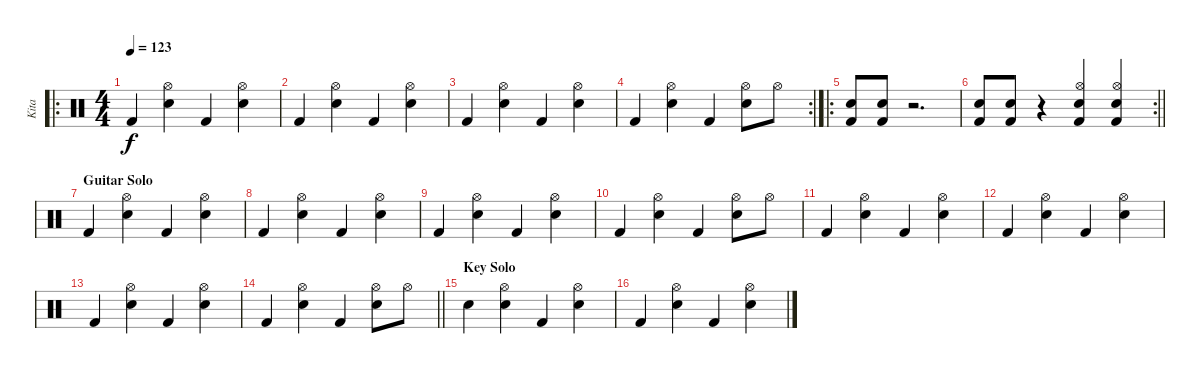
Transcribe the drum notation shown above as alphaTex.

\track ("Kita" "Kita") {instrument percussion}
\staff {score}
\articulation defaults
\ro
\ts (4 4)
\tempo 123
\clef neutral
\ks c "Kick (hit) 2".4{dy f}
("Hi-Hat (open)" "Snare (hit) 2").4 "Kick (hit) 2".4 ("Hi-Hat (open)" "Snare (hit) 2").4 |
"Kick (hit) 2".4 ("Hi-Hat (open)" "Snare (hit) 2").4 "Kick (hit) 2".4 ("Hi-Hat (open)" "Snare (hit) 2").4 |
"Kick (hit) 2".4 ("Hi-Hat (open)" "Snare (hit) 2").4 "Kick (hit) 2".4 ("Hi-Hat (open)" "Snare (hit) 2").4 |
\rc 2 "Kick (hit) 2".4
("Hi-Hat (open)" "Snare (hit) 2").4 "Kick (hit) 2".4 ("Hi-Hat (open)" "Snare (hit) 2").8 "Hi-Hat (open)".8 |
\ro
("Kick (hit) 2" "Snare (hit) 2").8 ("Kick (hit) 2" "Snare (hit) 2").8 r.2{d} |
\rc 2
\barLineRight lightlight
("Kick (hit) 2" "Snare (hit) 2").8 ("Kick (hit) 2" "Snare (hit) 2").8 r.4 ("Hi-Hat (open)" "Kick (hit) 2" "Snare (hit) 2").4 ("Hi-Hat (open)" "Kick (hit) 2" "Snare (hit) 2").4 |
\section ("" "Guitar Solo")
"Kick (hit) 2".4 ("Hi-Hat (open)" "Snare (hit) 2").4 "Kick (hit) 2".4 ("Hi-Hat (open)" "Snare (hit) 2").4 |
"Kick (hit) 2".4 ("Hi-Hat (open)" "Snare (hit) 2").4 "Kick (hit) 2".4 ("Hi-Hat (open)" "Snare (hit) 2").4 |
"Kick (hit) 2".4 ("Hi-Hat (open)" "Snare (hit) 2").4 "Kick (hit) 2".4 ("Hi-Hat (open)" "Snare (hit) 2").4 |
"Kick (hit) 2".4 ("Hi-Hat (open)" "Snare (hit) 2").4 "Kick (hit) 2".4 ("Hi-Hat (open)" "Snare (hit) 2").8 "Hi-Hat (open)".8 |
"Kick (hit) 2".4 ("Hi-Hat (open)" "Snare (hit) 2").4 "Kick (hit) 2".4 ("Hi-Hat (open)" "Snare (hit) 2").4 |
"Kick (hit) 2".4 ("Hi-Hat (open)" "Snare (hit) 2").4 "Kick (hit) 2".4 ("Hi-Hat (open)" "Snare (hit) 2").4 |
"Kick (hit) 2".4 ("Hi-Hat (open)" "Snare (hit) 2").4 "Kick (hit) 2".4 ("Hi-Hat (open)" "Snare (hit) 2").4 |
\barLineRight lightlight "Kick (hit) 2".4
("Hi-Hat (open)" "Snare (hit) 2").4 "Kick (hit) 2".4 ("Hi-Hat (open)" "Snare (hit) 2").8 "Hi-Hat (open)".8 |
\section ("" "Key Solo")
"Snare (hit) 2".4 ("Hi-Hat (open)" "Snare (hit) 2").4 "Kick (hit) 2".4 ("Hi-Hat (open)" "Snare (hit) 2").4 |
"Kick (hit) 2".4 ("Hi-Hat (open)" "Snare (hit) 2").4 "Kick (hit) 2".4 ("Hi-Hat (open)" "Snare (hit) 2").4
